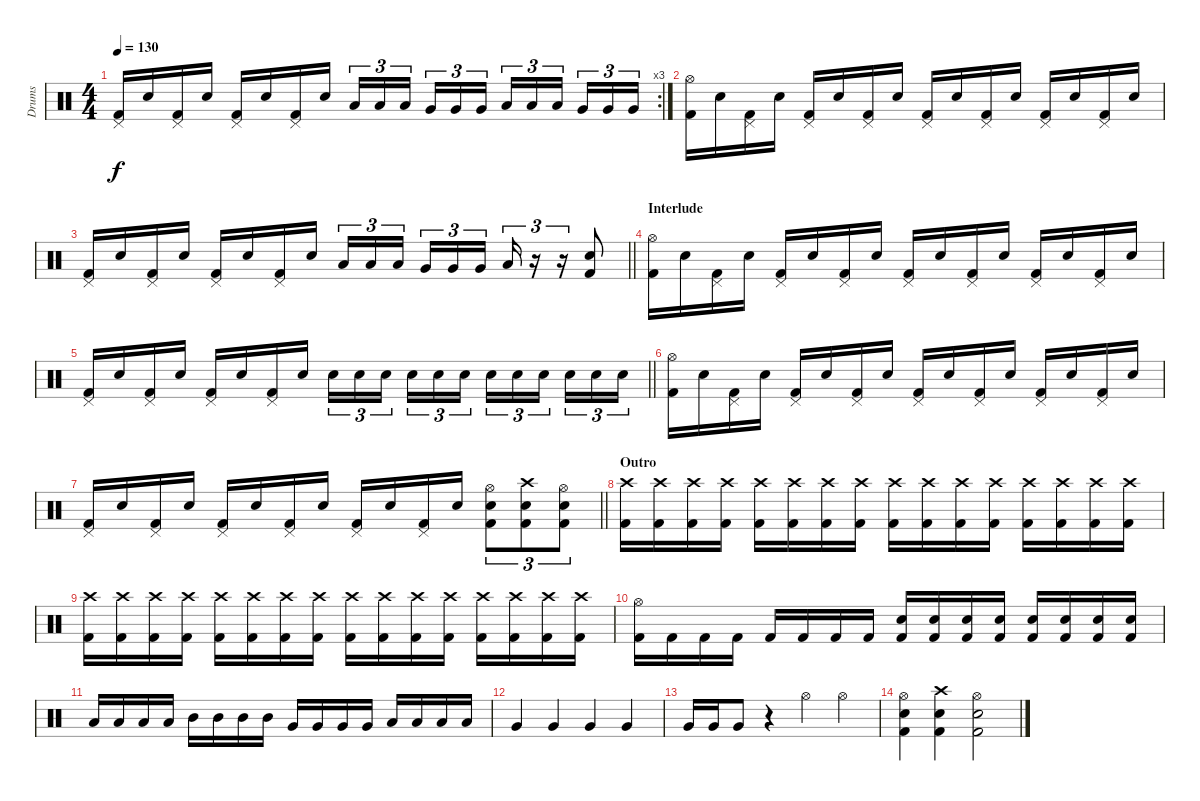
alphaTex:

\track ("Drums" "Drums") {instrument percussion}
\staff {score}
\articulation defaults
\rc 3
\ts (4 4)
\tempo 130
\clef neutral
\ks c
("Pedal Hi-Hat (hit)" "Kick (hit) 2").16{dy f} "Snare (hit) 2".16 ("Pedal Hi-Hat (hit)" "Kick (hit) 2").16 "Snare (hit) 2".16 ("Pedal Hi-Hat (hit)" "Kick (hit) 2").16 "Snare (hit) 2".16 ("Pedal Hi-Hat (hit)" "Kick (hit) 2").16 "Snare (hit) 2".16 "Low Tom (hit)".16{tu (3 2)} "Low Tom (hit)".16{tu (3 2)} "Low Tom (hit)".16{tu (3 2) beam splitsecondary} "Very Low Tom (hit)".16{tu (3 2)} "Very Low Tom (hit)".16{tu (3 2)} "Very Low Tom (hit)".16{tu (3 2)} "Low Floor Tom (hit)".16{tu (3 2)} "Low Floor Tom (hit)".16{tu (3 2)} "Low Floor Tom (hit)".16{tu (3 2) beam splitsecondary} "Very Low Tom (hit)".16{tu (3 2)} "Very Low Tom (hit)".16{tu (3 2)} "Very Low Tom (hit)".16{tu (3 2)} |
("Hi-Hat (open)" "Kick (hit) 2").16 "Snare (hit) 2".16 ("Pedal Hi-Hat (hit)" "Kick (hit) 2").16 "Snare (hit) 2".16 ("Pedal Hi-Hat (hit)" "Kick (hit) 2").16 "Snare (hit) 2".16 ("Pedal Hi-Hat (hit)" "Kick (hit) 2").16 "Snare (hit) 2".16 ("Pedal Hi-Hat (hit)" "Kick (hit) 2").16 "Snare (hit) 2".16 ("Pedal Hi-Hat (hit)" "Kick (hit) 2").16 "Snare (hit) 2".16 ("Pedal Hi-Hat (hit)" "Kick (hit) 2").16 "Snare (hit) 2".16 ("Pedal Hi-Hat (hit)" "Kick (hit) 2").16 "Snare (hit) 2".16 |
\barLineRight lightlight
("Pedal Hi-Hat (hit)" "Kick (hit) 2").16 "Snare (hit) 2".16 ("Pedal Hi-Hat (hit)" "Kick (hit) 2").16 "Snare (hit) 2".16 ("Pedal Hi-Hat (hit)" "Kick (hit) 2").16 "Snare (hit) 2".16 ("Pedal Hi-Hat (hit)" "Kick (hit) 2").16 "Snare (hit) 2".16 "Low Tom (hit)".16{tu (3 2)} "Low Tom (hit)".16{tu (3 2)} "Low Tom (hit)".16{tu (3 2) beam splitsecondary} "Very Low Tom (hit)".16{tu (3 2)} "Very Low Tom (hit)".16{tu (3 2)} "Very Low Tom (hit)".16{tu (3 2)} "Low Floor Tom (hit)".16{tu (3 2)} r.16{tu (3 2)} r.16{tu (3 2)} ("Snare (hit) 2" "Kick (hit) 2").8 |
\section ("" "Interlude")
("Hi-Hat (open)" "Kick (hit) 2").16 "Snare (hit) 2".16 ("Pedal Hi-Hat (hit)" "Kick (hit) 2").16 "Snare (hit) 2".16 ("Pedal Hi-Hat (hit)" "Kick (hit) 2").16 "Snare (hit) 2".16 ("Pedal Hi-Hat (hit)" "Kick (hit) 2").16 "Snare (hit) 2".16 ("Pedal Hi-Hat (hit)" "Kick (hit) 2").16 "Snare (hit) 2".16 ("Pedal Hi-Hat (hit)" "Kick (hit) 2").16 "Snare (hit) 2".16 ("Pedal Hi-Hat (hit)" "Kick (hit) 2").16 "Snare (hit) 2".16 ("Pedal Hi-Hat (hit)" "Kick (hit) 2").16 "Snare (hit) 2".16 |
\barLineRight lightlight
("Pedal Hi-Hat (hit)" "Kick (hit) 2").16 "Snare (hit) 2".16 ("Pedal Hi-Hat (hit)" "Kick (hit) 2").16 "Snare (hit) 2".16 ("Pedal Hi-Hat (hit)" "Kick (hit) 2").16 "Snare (hit) 2".16 ("Pedal Hi-Hat (hit)" "Kick (hit) 2").16 "Snare (hit) 2".16 "Snare (hit) 2".16{tu (3 2)} "Snare (hit) 2".16{tu (3 2)} "Snare (hit) 2".16{tu (3 2) beam splitsecondary} "Snare (hit) 2".16{tu (3 2)} "Snare (hit) 2".16{tu (3 2)} "Snare (hit) 2".16{tu (3 2)} "Snare (hit) 2".16{tu (3 2)} "Snare (hit) 2".16{tu (3 2)} "Snare (hit) 2".16{tu (3 2) beam splitsecondary} "Snare (hit) 2".16{tu (3 2)} "Snare (hit) 2".16{tu (3 2)} "Snare (hit) 2".16{tu (3 2)} |
("Hi-Hat (open)" "Kick (hit) 2").16 "Snare (hit) 2".16 ("Pedal Hi-Hat (hit)" "Kick (hit) 2").16 "Snare (hit) 2".16 ("Pedal Hi-Hat (hit)" "Kick (hit) 2").16 "Snare (hit) 2".16 ("Pedal Hi-Hat (hit)" "Kick (hit) 2").16 "Snare (hit) 2".16 ("Pedal Hi-Hat (hit)" "Kick (hit) 2").16 "Snare (hit) 2".16 ("Pedal Hi-Hat (hit)" "Kick (hit) 2").16 "Snare (hit) 2".16 ("Pedal Hi-Hat (hit)" "Kick (hit) 2").16 "Snare (hit) 2".16 ("Pedal Hi-Hat (hit)" "Kick (hit) 2").16 "Snare (hit) 2".16 |
\barLineRight lightlight
("Pedal Hi-Hat (hit)" "Kick (hit) 2").16 "Snare (hit) 2".16 ("Pedal Hi-Hat (hit)" "Kick (hit) 2").16 "Snare (hit) 2".16 ("Pedal Hi-Hat (hit)" "Kick (hit) 2").16 "Snare (hit) 2".16 ("Pedal Hi-Hat (hit)" "Kick (hit) 2").16 "Snare (hit) 2".16 ("Pedal Hi-Hat (hit)" "Kick (hit) 2").16 "Snare (hit) 2".16 ("Pedal Hi-Hat (hit)" "Kick (hit) 2").16 "Snare (hit) 2".16 ("Hi-Hat (open)" "Snare (hit) 2" "Kick (hit) 2").8{tu (3 2)} ("Crash high (hit)" "Snare (hit) 2" "Kick (hit) 2").8{tu (3 2)} ("Hi-Hat (open)" "Snare (hit) 2" "Kick (hit) 2").8{tu (3 2)} |
\section ("" "Outro")
("Crash high (hit)" "Kick (hit) 2").16 ("Crash high (hit)" "Kick (hit) 2").16 ("Crash high (hit)" "Kick (hit) 2").16 ("Crash high (hit)" "Kick (hit) 2").16 ("Crash high (hit)" "Kick (hit) 2").16 ("Crash high (hit)" "Kick (hit) 2").16 ("Crash high (hit)" "Kick (hit) 2").16 ("Crash high (hit)" "Kick (hit) 2").16 ("Crash high (hit)" "Kick (hit) 2").16 ("Crash high (hit)" "Kick (hit) 2").16 ("Crash high (hit)" "Kick (hit) 2").16 ("Crash high (hit)" "Kick (hit) 2").16 ("Crash high (hit)" "Kick (hit) 2").16 ("Crash high (hit)" "Kick (hit) 2").16 ("Crash high (hit)" "Kick (hit) 2").16 ("Crash high (hit)" "Kick (hit) 2").16 |
("Crash high (hit)" "Kick (hit) 2").16 ("Crash high (hit)" "Kick (hit) 2").16 ("Crash high (hit)" "Kick (hit) 2").16 ("Crash high (hit)" "Kick (hit) 2").16 ("Crash high (hit)" "Kick (hit) 2").16 ("Crash high (hit)" "Kick (hit) 2").16 ("Crash high (hit)" "Kick (hit) 2").16 ("Crash high (hit)" "Kick (hit) 2").16 ("Crash high (hit)" "Kick (hit) 2").16 ("Crash high (hit)" "Kick (hit) 2").16 ("Crash high (hit)" "Kick (hit) 2").16 ("Crash high (hit)" "Kick (hit) 2").16 ("Crash high (hit)" "Kick (hit) 2").16 ("Crash high (hit)" "Kick (hit) 2").16 ("Crash high (hit)" "Kick (hit) 2").16 ("Crash high (hit)" "Kick (hit) 2").16 |
("Hi-Hat (open)" "Kick (hit) 2").16 "Kick (hit) 2".16 "Kick (hit) 2".16 "Kick (hit) 2".16 "Kick (hit) 2".16 "Kick (hit) 2".16 "Kick (hit) 2".16 "Kick (hit) 2".16 ("Snare (hit) 2" "Kick (hit) 2").16 ("Snare (hit) 2" "Kick (hit) 2").16 ("Snare (hit) 2" "Kick (hit) 2").16 ("Snare (hit) 2" "Kick (hit) 2").16 ("Snare (hit) 2" "Kick (hit) 2").16 ("Snare (hit) 2" "Kick (hit) 2").16 ("Snare (hit) 2" "Kick (hit) 2").16 ("Snare (hit) 2" "Kick (hit) 2").16 |
"Low Tom (hit)".16 "Low Tom (hit)".16 "Low Tom (hit)".16 "Low Tom (hit)".16 "Mid Tom (hit)".16 "Mid Tom (hit)".16 "Mid Tom (hit)".16 "Mid Tom (hit)".16 "Very Low Tom (hit)".16 "Very Low Tom (hit)".16 "Very Low Tom (hit)".16 "Very Low Tom (hit)".16 "Low Floor Tom (hit)".16 "Low Floor Tom (hit)".16 "Low Floor Tom (hit)".16 "Low Floor Tom (hit)".16 |
"Very Low Tom (hit)".4 "Very Low Tom (hit)".4 "Very Low Tom (hit)".4 "Very Low Tom (hit)".4 |
"Very Low Tom (hit)".16 "Very Low Tom (hit)".16 "Very Low Tom (hit)".8 r.4 "Hi-Hat (open)".4 "Hi-Hat (open)".4 |
("Hi-Hat (open)" "Snare (hit) 2" "Kick (hit) 2").4 ("Crash high (hit)" "Snare (hit) 2" "Kick (hit) 2").4 ("Hi-Hat (open)" "Snare (hit) 2" "Kick (hit) 2").2
